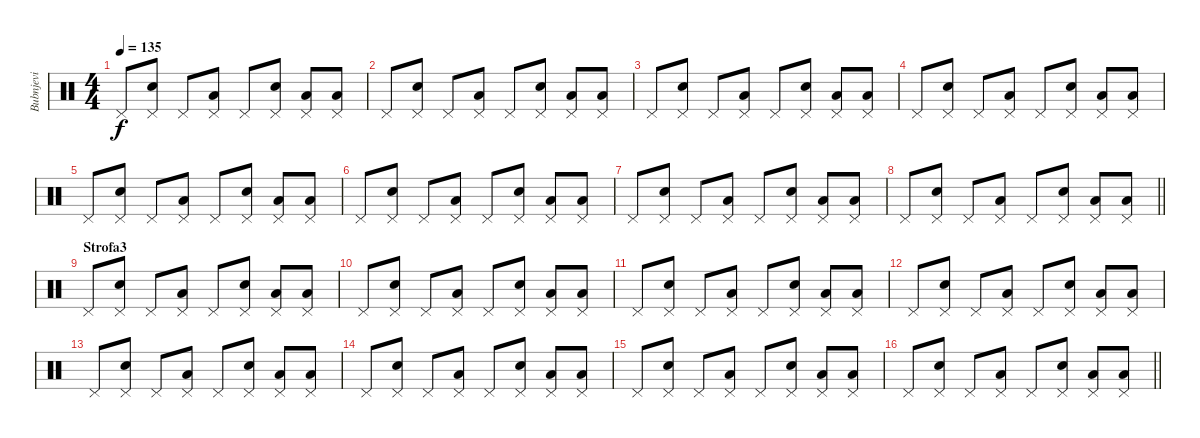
\track ("Bubnjevi" "Bubnjevi") {instrument percussion}
\staff {score}
\articulation defaults
\ts (4 4)
\tempo 135
\clef neutral
\ks c "Pedal Hi-Hat (hit)".8{dy f}
("Pedal Hi-Hat (hit)" "Snare (hit) 2").8 "Pedal Hi-Hat (hit)".8 ("Pedal Hi-Hat (hit)" "Low Tom (hit)").8 "Pedal Hi-Hat (hit)".8 ("Pedal Hi-Hat (hit)" "Snare (hit) 2").8 ("Pedal Hi-Hat (hit)" "Low Tom (hit)").8 ("Pedal Hi-Hat (hit)" "Low Tom (hit)").8 |
"Pedal Hi-Hat (hit)".8 ("Pedal Hi-Hat (hit)" "Snare (hit) 2").8 "Pedal Hi-Hat (hit)".8 ("Pedal Hi-Hat (hit)" "Low Tom (hit)").8 "Pedal Hi-Hat (hit)".8 ("Pedal Hi-Hat (hit)" "Snare (hit) 2").8 ("Pedal Hi-Hat (hit)" "Low Tom (hit)").8 ("Pedal Hi-Hat (hit)" "Low Tom (hit)").8 |
"Pedal Hi-Hat (hit)".8 ("Pedal Hi-Hat (hit)" "Snare (hit) 2").8 "Pedal Hi-Hat (hit)".8 ("Pedal Hi-Hat (hit)" "Low Tom (hit)").8 "Pedal Hi-Hat (hit)".8 ("Pedal Hi-Hat (hit)" "Snare (hit) 2").8 ("Pedal Hi-Hat (hit)" "Low Tom (hit)").8 ("Pedal Hi-Hat (hit)" "Low Tom (hit)").8 |
"Pedal Hi-Hat (hit)".8 ("Pedal Hi-Hat (hit)" "Snare (hit) 2").8 "Pedal Hi-Hat (hit)".8 ("Pedal Hi-Hat (hit)" "Low Tom (hit)").8 "Pedal Hi-Hat (hit)".8 ("Pedal Hi-Hat (hit)" "Snare (hit) 2").8 ("Pedal Hi-Hat (hit)" "Low Tom (hit)").8 ("Pedal Hi-Hat (hit)" "Low Tom (hit)").8 |
"Pedal Hi-Hat (hit)".8 ("Pedal Hi-Hat (hit)" "Snare (hit) 2").8 "Pedal Hi-Hat (hit)".8 ("Pedal Hi-Hat (hit)" "Low Tom (hit)").8 "Pedal Hi-Hat (hit)".8 ("Pedal Hi-Hat (hit)" "Snare (hit) 2").8 ("Pedal Hi-Hat (hit)" "Low Tom (hit)").8 ("Pedal Hi-Hat (hit)" "Low Tom (hit)").8 |
"Pedal Hi-Hat (hit)".8 ("Pedal Hi-Hat (hit)" "Snare (hit) 2").8 "Pedal Hi-Hat (hit)".8 ("Pedal Hi-Hat (hit)" "Low Tom (hit)").8 "Pedal Hi-Hat (hit)".8 ("Pedal Hi-Hat (hit)" "Snare (hit) 2").8 ("Pedal Hi-Hat (hit)" "Low Tom (hit)").8 ("Pedal Hi-Hat (hit)" "Low Tom (hit)").8 |
"Pedal Hi-Hat (hit)".8 ("Pedal Hi-Hat (hit)" "Snare (hit) 2").8 "Pedal Hi-Hat (hit)".8 ("Pedal Hi-Hat (hit)" "Low Tom (hit)").8 "Pedal Hi-Hat (hit)".8 ("Pedal Hi-Hat (hit)" "Snare (hit) 2").8 ("Pedal Hi-Hat (hit)" "Low Tom (hit)").8 ("Pedal Hi-Hat (hit)" "Low Tom (hit)").8 |
\barLineRight lightlight "Pedal Hi-Hat (hit)".8
("Pedal Hi-Hat (hit)" "Snare (hit) 2").8 "Pedal Hi-Hat (hit)".8 ("Pedal Hi-Hat (hit)" "Low Tom (hit)").8 "Pedal Hi-Hat (hit)".8 ("Pedal Hi-Hat (hit)" "Snare (hit) 2").8 ("Pedal Hi-Hat (hit)" "Low Tom (hit)").8 ("Pedal Hi-Hat (hit)" "Low Tom (hit)").8 |
\section ("" "Strofa3")
"Pedal Hi-Hat (hit)".8 ("Pedal Hi-Hat (hit)" "Snare (hit) 2").8 "Pedal Hi-Hat (hit)".8 ("Pedal Hi-Hat (hit)" "Low Tom (hit)").8 "Pedal Hi-Hat (hit)".8 ("Pedal Hi-Hat (hit)" "Snare (hit) 2").8 ("Pedal Hi-Hat (hit)" "Low Tom (hit)").8 ("Pedal Hi-Hat (hit)" "Low Tom (hit)").8 |
"Pedal Hi-Hat (hit)".8 ("Pedal Hi-Hat (hit)" "Snare (hit) 2").8 "Pedal Hi-Hat (hit)".8 ("Pedal Hi-Hat (hit)" "Low Tom (hit)").8 "Pedal Hi-Hat (hit)".8 ("Pedal Hi-Hat (hit)" "Snare (hit) 2").8 ("Pedal Hi-Hat (hit)" "Low Tom (hit)").8 ("Pedal Hi-Hat (hit)" "Low Tom (hit)").8 |
"Pedal Hi-Hat (hit)".8 ("Pedal Hi-Hat (hit)" "Snare (hit) 2").8 "Pedal Hi-Hat (hit)".8 ("Pedal Hi-Hat (hit)" "Low Tom (hit)").8 "Pedal Hi-Hat (hit)".8 ("Pedal Hi-Hat (hit)" "Snare (hit) 2").8 ("Pedal Hi-Hat (hit)" "Low Tom (hit)").8 ("Pedal Hi-Hat (hit)" "Low Tom (hit)").8 |
"Pedal Hi-Hat (hit)".8 ("Pedal Hi-Hat (hit)" "Snare (hit) 2").8 "Pedal Hi-Hat (hit)".8 ("Pedal Hi-Hat (hit)" "Low Tom (hit)").8 "Pedal Hi-Hat (hit)".8 ("Pedal Hi-Hat (hit)" "Snare (hit) 2").8 ("Pedal Hi-Hat (hit)" "Low Tom (hit)").8 ("Pedal Hi-Hat (hit)" "Low Tom (hit)").8 |
"Pedal Hi-Hat (hit)".8 ("Pedal Hi-Hat (hit)" "Snare (hit) 2").8 "Pedal Hi-Hat (hit)".8 ("Pedal Hi-Hat (hit)" "Low Tom (hit)").8 "Pedal Hi-Hat (hit)".8 ("Pedal Hi-Hat (hit)" "Snare (hit) 2").8 ("Pedal Hi-Hat (hit)" "Low Tom (hit)").8 ("Pedal Hi-Hat (hit)" "Low Tom (hit)").8 |
"Pedal Hi-Hat (hit)".8 ("Pedal Hi-Hat (hit)" "Snare (hit) 2").8 "Pedal Hi-Hat (hit)".8 ("Pedal Hi-Hat (hit)" "Low Tom (hit)").8 "Pedal Hi-Hat (hit)".8 ("Pedal Hi-Hat (hit)" "Snare (hit) 2").8 ("Pedal Hi-Hat (hit)" "Low Tom (hit)").8 ("Pedal Hi-Hat (hit)" "Low Tom (hit)").8 |
"Pedal Hi-Hat (hit)".8 ("Pedal Hi-Hat (hit)" "Snare (hit) 2").8 "Pedal Hi-Hat (hit)".8 ("Pedal Hi-Hat (hit)" "Low Tom (hit)").8 "Pedal Hi-Hat (hit)".8 ("Pedal Hi-Hat (hit)" "Snare (hit) 2").8 ("Pedal Hi-Hat (hit)" "Low Tom (hit)").8 ("Pedal Hi-Hat (hit)" "Low Tom (hit)").8 |
\barLineRight lightlight "Pedal Hi-Hat (hit)".8
("Pedal Hi-Hat (hit)" "Snare (hit) 2").8 "Pedal Hi-Hat (hit)".8 ("Pedal Hi-Hat (hit)" "Low Tom (hit)").8 "Pedal Hi-Hat (hit)".8 ("Pedal Hi-Hat (hit)" "Snare (hit) 2").8 ("Pedal Hi-Hat (hit)" "Low Tom (hit)").8 ("Pedal Hi-Hat (hit)" "Low Tom (hit)").8
